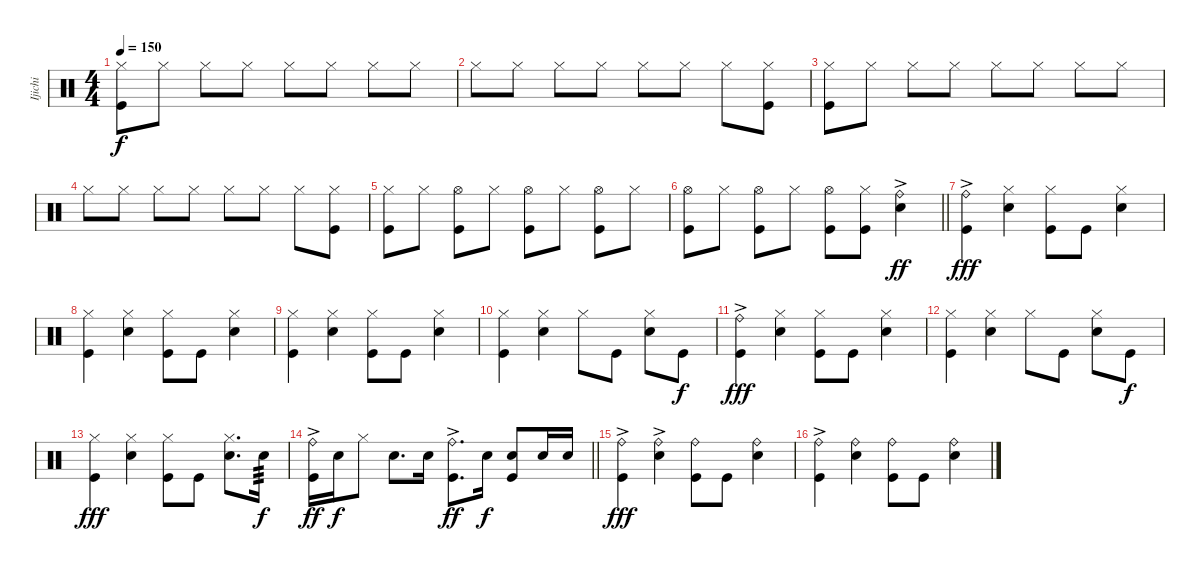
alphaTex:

\track ("Ijichi" "Ijichi") {instrument percussion}
\staff {score}
\articulation defaults
\ts (4 4)
\tempo 150
\clef neutral
\ks c
("Hi-Hat (closed)" "Kick (hit)").8{dy f} "Hi-Hat (closed)".8 "Hi-Hat (closed)".8 "Hi-Hat (closed)".8 "Hi-Hat (closed)".8 "Hi-Hat (closed)".8 "Hi-Hat (closed)".8 "Hi-Hat (closed)".8 |
"Hi-Hat (closed)".8 "Hi-Hat (closed)".8 "Hi-Hat (closed)".8 "Hi-Hat (closed)".8 "Hi-Hat (closed)".8 "Hi-Hat (closed)".8 "Hi-Hat (closed)".8 ("Hi-Hat (closed)" "Kick (hit)").8 |
("Hi-Hat (closed)" "Kick (hit)").8 "Hi-Hat (closed)".8 "Hi-Hat (closed)".8 "Hi-Hat (closed)".8 "Hi-Hat (closed)".8 "Hi-Hat (closed)".8 "Hi-Hat (closed)".8 "Hi-Hat (closed)".8 |
"Hi-Hat (closed)".8 "Hi-Hat (closed)".8 "Hi-Hat (closed)".8 "Hi-Hat (closed)".8 "Hi-Hat (closed)".8 "Hi-Hat (closed)".8 "Hi-Hat (closed)".8 ("Hi-Hat (closed)" "Kick (hit)").8 |
("Hi-Hat (closed)" "Kick (hit)").8 "Hi-Hat (closed)".8 ("Hi-Hat (open)" "Kick (hit)").8 "Hi-Hat (closed)".8 ("Hi-Hat (open)" "Kick (hit)").8 "Hi-Hat (closed)".8 ("Hi-Hat (open)" "Kick (hit)").8 "Hi-Hat (closed)".8 |
\barLineRight lightlight
("Hi-Hat (open)" "Kick (hit)").8 "Hi-Hat (closed)".8 ("Hi-Hat (open)" "Kick (hit)").8 "Hi-Hat (closed)".8 ("Hi-Hat (open)" "Kick (hit)").8 ("Hi-Hat (closed)" "Kick (hit)").8 ("Ride (bell)"{ac} "Snare (hit) 2").4{dy ff} |
("Ride (bell)"{ac} "Kick (hit)").4{dy fff} ("Hi-Hat (closed)" "Snare (hit) 2").4 ("Hi-Hat (closed)" "Kick (hit)").8 "Kick (hit)".8 ("Hi-Hat (closed)" "Snare (hit) 2").4 |
("Hi-Hat (closed)" "Kick (hit)").4 ("Hi-Hat (closed)" "Snare (hit) 2").4 ("Hi-Hat (closed)" "Kick (hit)").8 "Kick (hit)".8 ("Hi-Hat (closed)" "Snare (hit) 2").4 |
("Hi-Hat (closed)" "Kick (hit)").4 ("Hi-Hat (closed)" "Snare (hit) 2").4 ("Hi-Hat (closed)" "Kick (hit)").8 "Kick (hit)".8 ("Hi-Hat (closed)" "Snare (hit) 2").4 |
("Hi-Hat (closed)" "Kick (hit)").4 ("Hi-Hat (closed)" "Snare (hit) 2").4 "Hi-Hat (closed)".8 "Kick (hit)".8 ("Hi-Hat (closed)" "Snare (hit) 2").8 "Kick (hit)".8{dy f} |
("Ride (bell)"{ac} "Kick (hit)").4{dy fff} ("Hi-Hat (closed)" "Snare (hit) 2").4 ("Hi-Hat (closed)" "Kick (hit)").8 "Kick (hit)".8 ("Hi-Hat (closed)" "Snare (hit) 2").4 |
("Hi-Hat (closed)" "Kick (hit)").4 ("Hi-Hat (closed)" "Snare (hit) 2").4 "Hi-Hat (closed)".8 "Kick (hit)".8 ("Hi-Hat (closed)" "Snare (hit) 2").8 "Kick (hit)".8{dy f} |
("Hi-Hat (closed)" "Kick (hit)").4{dy fff} ("Hi-Hat (closed)" "Snare (hit) 2").4 ("Hi-Hat (closed)" "Kick (hit)").8 "Kick (hit)".8 ("Hi-Hat (closed)" "Snare (hit) 2").8{d} "Snare (hit) 2".16{tp 3 dy f} |
\barLineRight lightlight
("Ride (bell)"{ac} "Kick (hit)").16{dy ff} "Snare (hit) 2".16{dy f} "Hi-Hat (closed)".8 "Snare (hit) 2".8{d} "Snare (hit) 2".16 ("Ride (bell)"{ac} "Kick (hit)").8{d dy ff} "Snare (hit) 2".16{dy f} ("Snare (hit) 2" "Kick (hit)").8 "Snare (hit) 2".16 "Snare (hit) 2".16 |
("Ride (bell)"{ac} "Kick (hit)").4{dy fff} ("Ride (bell)"{ac} "Snare (hit) 2").4 ("Ride (bell)" "Kick (hit)").8 "Kick (hit)".8 ("Ride (bell)" "Snare (hit) 2").4 |
("Ride (bell)"{ac} "Kick (hit)").4 ("Ride (bell)" "Snare (hit) 2").4 ("Ride (bell)" "Kick (hit)").8 "Kick (hit)".8 ("Ride (bell)" "Snare (hit) 2").4
